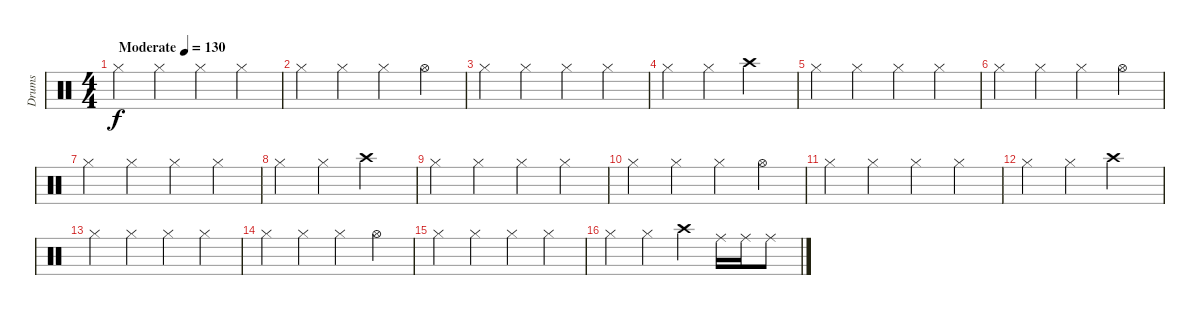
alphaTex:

\track ("Drums" "Drums") {instrument percussion}
\staff {score}
\articulation defaults
\ts (4 4)
\tempo (130 "Moderate")
\clef neutral
\ks c "Hi-Hat (closed)".4{dy f} "Hi-Hat (closed)".4 "Hi-Hat (closed)".4 "Hi-Hat (closed)".4
|
"Hi-Hat (closed)".4 "Hi-Hat (closed)".4 "Hi-Hat (closed)".4 "Hi-Hat (open)".4 |
"Hi-Hat (closed)".4 "Hi-Hat (closed)".4 "Hi-Hat (closed)".4 "Hi-Hat (closed)".4 |
"Hi-Hat (closed)".4 "Hi-Hat (closed)".4 "Crash high (hit)".2 |
"Hi-Hat (closed)".4 "Hi-Hat (closed)".4 "Hi-Hat (closed)".4 "Hi-Hat (closed)".4 |
"Hi-Hat (closed)".4 "Hi-Hat (closed)".4 "Hi-Hat (closed)".4 "Hi-Hat (open)".4 |
"Hi-Hat (closed)".4 "Hi-Hat (closed)".4 "Hi-Hat (closed)".4 "Hi-Hat (closed)".4 |
"Hi-Hat (closed)".4 "Hi-Hat (closed)".4 "Crash high (hit)".2 |
"Hi-Hat (closed)".4 "Hi-Hat (closed)".4 "Hi-Hat (closed)".4 "Hi-Hat (closed)".4 |
"Hi-Hat (closed)".4 "Hi-Hat (closed)".4 "Hi-Hat (closed)".4 "Hi-Hat (open)".4 |
"Hi-Hat (closed)".4 "Hi-Hat (closed)".4 "Hi-Hat (closed)".4 "Hi-Hat (closed)".4 |
"Hi-Hat (closed)".4 "Hi-Hat (closed)".4 "Crash high (hit)".2 |
"Hi-Hat (closed)".4 "Hi-Hat (closed)".4 "Hi-Hat (closed)".4 "Hi-Hat (closed)".4 |
"Hi-Hat (closed)".4 "Hi-Hat (closed)".4 "Hi-Hat (closed)".4 "Hi-Hat (open)".4 |
"Hi-Hat (closed)".4 "Hi-Hat (closed)".4 "Hi-Hat (closed)".4 "Hi-Hat (closed)".4 |
"Hi-Hat (closed)".4 "Hi-Hat (closed)".4 "Crash high (hit)".4 "Ride (middle)".16 "Ride (middle)".16 "Ride (middle)".8
